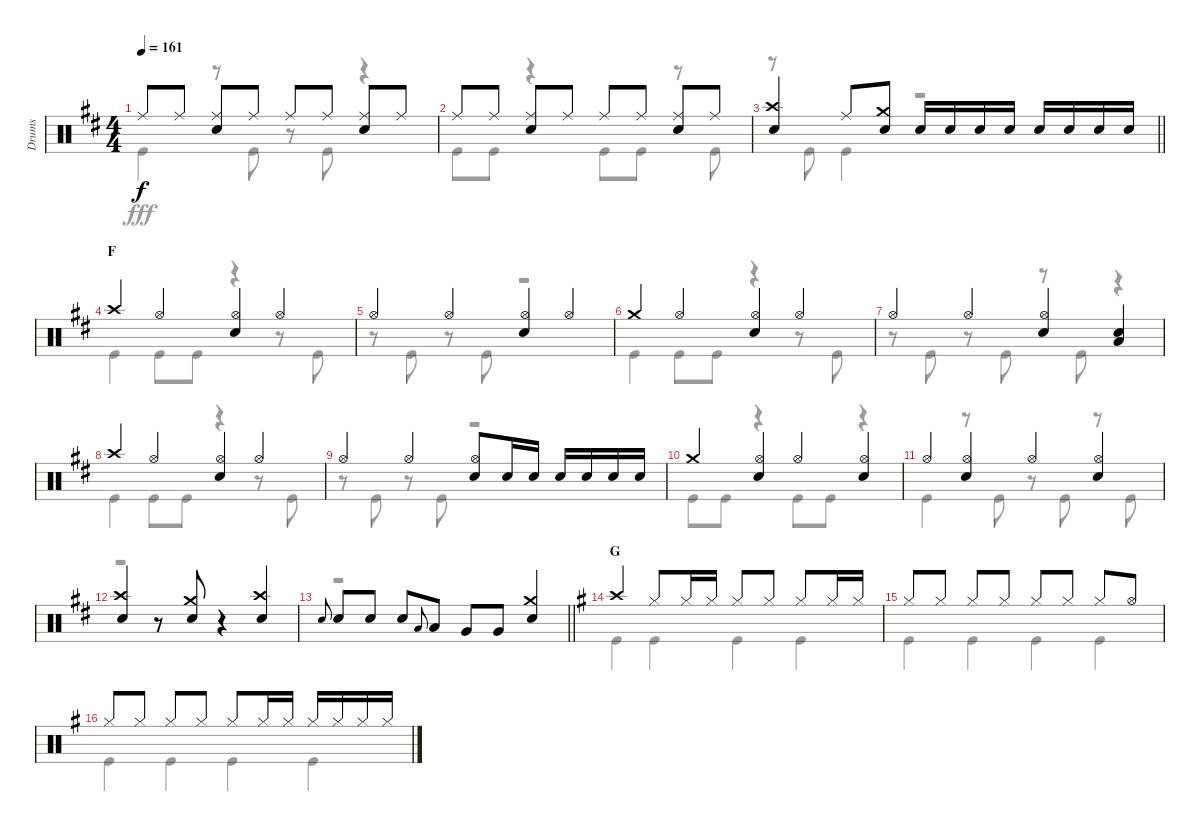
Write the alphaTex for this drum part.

\track ("Drums" "Drums") {instrument percussion}
\staff {score}
\articulation defaults
\voice
\ts (4 4)
\tempo 161
\clef neutral
\ks d "Ride (middle)".8{dy f} "Ride (middle)".8
("Ride (middle)" "Snare (hit) 2").8 "Ride (middle)".8 "Ride (middle)".8 "Ride (middle)".8 ("Ride (middle)" "Snare (hit) 2").8 "Ride (middle)".8 |
"Ride (middle)".8 "Ride (middle)".8 ("Ride (middle)" "Snare (hit) 2").8 "Ride (middle)".8 "Ride (middle)".8 "Ride (middle)".8 ("Ride (middle)" "Snare (hit) 2").8 "Ride (middle)".8 |
\barLineRight lightlight
("Crash high (hit)" "Snare (hit) 2").4 "Ride (middle)".8 ("Crash medium (hit)" "Snare (hit) 2").8 "Snare (hit) 2".16 "Snare (hit) 2".16 "Snare (hit) 2".16 "Snare (hit) 2".16 "Snare (hit) 2".16 "Snare (hit) 2".16 "Snare (hit) 2".16 "Snare (hit) 2".16 |
\section ("" "F")
"Crash high (hit)".4 "Hi-Hat (open)".4 ("Hi-Hat (open)" "Snare (hit) 2").4 "Hi-Hat (open)".4 |
"Hi-Hat (open)".4 "Hi-Hat (open)".4 ("Hi-Hat (open)" "Snare (hit) 2").4 "Hi-Hat (open)".4 |
"Crash medium (hit)".4 "Hi-Hat (open)".4 ("Hi-Hat (open)" "Snare (hit) 2").4 "Hi-Hat (open)".4 |
"Hi-Hat (open)".4 "Hi-Hat (open)".4 ("Hi-Hat (open)" "Snare (hit) 2").4 ("Snare (hit) 2" "Low Tom (hit)").4 |
"Crash high (hit)".4 "Hi-Hat (open)".4 ("Hi-Hat (open)" "Snare (hit) 2").4 "Hi-Hat (open)".4 |
"Hi-Hat (open)".4 "Hi-Hat (open)".4 ("Hi-Hat (open)" "Snare (hit) 2").8 "Snare (hit) 2".16 "Snare (hit) 2".16 "Snare (hit) 2".16 "Snare (hit) 2".16 "Snare (hit) 2".16 "Snare (hit) 2".16 |
"Crash medium (hit)".4 ("Hi-Hat (open)" "Snare (hit) 2").4 "Hi-Hat (open)".4 ("Hi-Hat (open)" "Snare (hit) 2").4 |
"Hi-Hat (open)".4 ("Hi-Hat (open)" "Snare (hit) 2").4 "Hi-Hat (open)".4 ("Hi-Hat (open)" "Snare (hit) 2").4 |
("Crash high (hit)" "Snare (hit) 2").4 r.8 ("Crash medium (hit)" "Snare (hit) 2").8 r.4 ("Crash high (hit)" "Snare (hit) 2").4 |
\barLineRight lightlight "Snare (hit) 2".8{gr onbeat} "Snare (hit) 2".8 "Snare (hit) 2".8 "Snare (hit) 2".8 "Low Tom (hit)".8{gr onbeat} "Low Tom (hit)".8 "Very Low Tom (hit)".8 "Very Low Tom (hit)".8
("Crash medium (hit)" "Snare (hit) 2").4 |
\section ("" "G")
\ks g "Crash high (hit)".4 "Hi-Hat (closed)".8 "Hi-Hat (closed)".16 "Hi-Hat (closed)".16 "Hi-Hat (closed)".8 "Hi-Hat (closed)".8 "Hi-Hat (closed)".8 "Hi-Hat (closed)".16 "Hi-Hat (closed)".16
|
"Hi-Hat (closed)".8 "Hi-Hat (closed)".8 "Hi-Hat (closed)".8 "Hi-Hat (closed)".8 "Hi-Hat (closed)".8 "Hi-Hat (closed)".8 "Hi-Hat (closed)".8 "Hi-Hat (open)".8 |
"Hi-Hat (closed)".8 "Hi-Hat (closed)".8 "Hi-Hat (closed)".8 "Hi-Hat (closed)".8 "Hi-Hat (closed)".8 "Hi-Hat (closed)".16 "Hi-Hat (closed)".16 "Hi-Hat (closed)".16 "Hi-Hat (closed)".16 "Hi-Hat (closed)".16 "Hi-Hat (closed)".16
\voice
\clef neutral
\ottava regular
\simile none
\ks d "Kick (hit)".4{dy fff}
r.8 "Kick (hit)".8 r.8 "Kick (hit)".8 r.4 |
"Kick (hit)".8 "Kick (hit)".8 r.4 "Kick (hit)".8 "Kick (hit)".8 r.8 "Kick (hit)".8 |
\barLineRight lightlight
r.8 "Kick (hit)".8 "Kick (hit)".4 r.2 |
"Kick (hit)".4 "Kick (hit)".8 "Kick (hit)".8 r.4 r.8 "Kick (hit)".8 |
r.8 "Kick (hit)".8 r.8 "Kick (hit)".8 r.2 |
"Kick (hit)".4 "Kick (hit)".8 "Kick (hit)".8 r.4 r.8 "Kick (hit)".8 |
r.8 "Kick (hit)".8 r.8 "Kick (hit)".8 r.8 "Kick (hit)".8 r.4 |
"Kick (hit)".4 "Kick (hit)".8 "Kick (hit)".8 r.4 r.8 "Kick (hit)".8 |
r.8 "Kick (hit)".8 r.8 "Kick (hit)".8 r.2 |
"Kick (hit)".8 "Kick (hit)".8 r.4 "Kick (hit)".8 "Kick (hit)".8 r.4 |
"Kick (hit)".4 r.8 "Kick (hit)".8 r.8 "Kick (hit)".8 r.8 "Kick (hit)".8 |
r.1 |
\barLineRight lightlight
r.1 |
\ks g "Kick (hit)".4 "Kick (hit)".4 "Kick (hit)".4 "Kick (hit)".4
|
"Kick (hit)".4 "Kick (hit)".4 "Kick (hit)".4 "Kick (hit)".4 |
"Kick (hit)".4 "Kick (hit)".4 "Kick (hit)".4 "Kick (hit)".4
